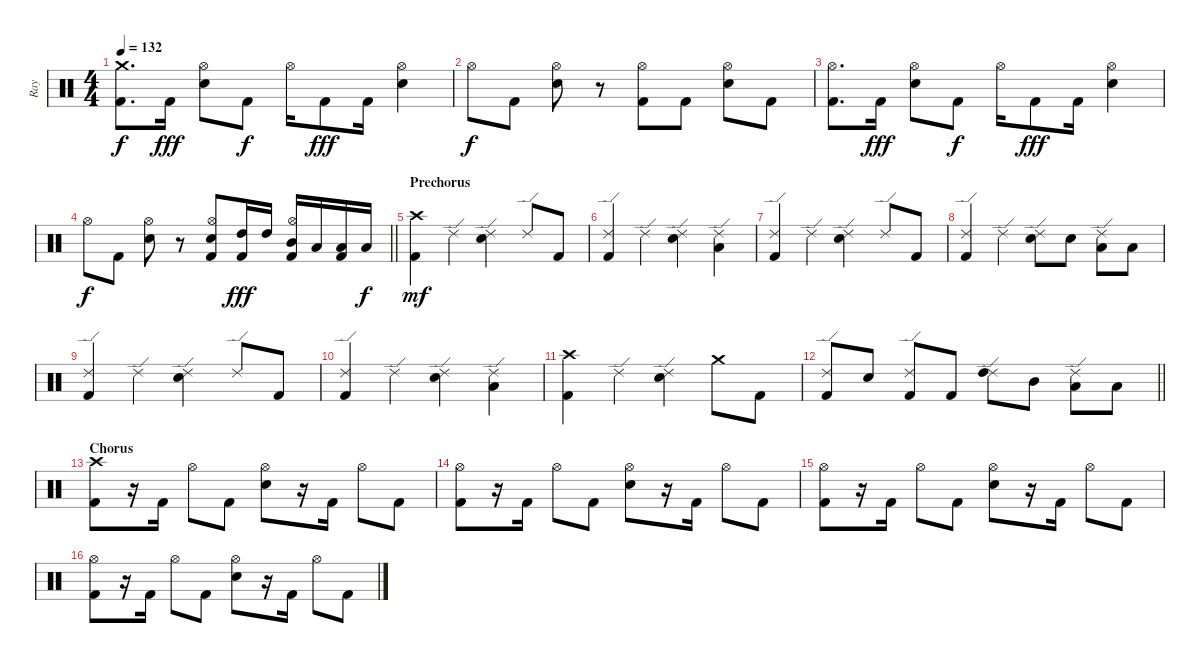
\track ("Ray" "Ray") {instrument percussion}
\staff {score}
\articulation defaults
\ts (4 4)
\tempo 132
\clef neutral
\ks c
("Crash medium (hit)" "Kick (hit) 2").8{d dy f} "Kick (hit) 2".16{dy fff} ("Hi-Hat (open)" "Snare (hit) 2").8 "Kick (hit) 2".8{dy f} "Hi-Hat (open)".16 "Kick (hit) 2".8{dy fff} "Kick (hit) 2".16 ("Hi-Hat (open)" "Snare (hit) 2").4 |
"Hi-Hat (open)".8{dy f} "Kick (hit) 2".8 ("Hi-Hat (open)" "Snare (hit) 2").8 r.8 ("Hi-Hat (open)" "Kick (hit) 2").8 "Kick (hit) 2".8 ("Hi-Hat (open)" "Snare (hit) 2").8 "Kick (hit) 2".8 |
("Hi-Hat (open)" "Kick (hit) 2").8{d} "Kick (hit) 2".16{dy fff} ("Hi-Hat (open)" "Snare (hit) 2").8 "Kick (hit) 2".8{dy f} "Hi-Hat (open)".16 "Kick (hit) 2".8{dy fff} "Kick (hit) 2".16 ("Hi-Hat (open)" "Snare (hit) 2").4 |
\barLineRight lightlight "Hi-Hat (open)".8{dy f} "Kick (hit) 2".8
("Hi-Hat (open)" "Snare (hit) 2").8 r.8 ("Hi-Hat (open)" "Snare (hit) 2" "Kick (hit) 2").8 ("High Tom (hit)" "Kick (hit) 2").16{dy fff} "High Tom (hit)".16 ("Hi-Hat (open)" "Mid Tom (hit)" "Kick (hit) 2").16 "Low Tom (hit)".16 ("Low Floor Tom (hit)" "Kick (hit) 2").16 "Low Floor Tom (hit)".16{dy f} |
\section ("" "Prechorus")
("Crash high (hit)" "Kick (hit) 2").4{dy mf} "Ride (edge) 2".4 ("Ride (edge) 2" "Snare (hit) 2").4 "Ride (edge) 2".8 "Kick (hit) 2".8 |
("Ride (edge) 2" "Kick (hit) 2").4 "Ride (edge) 2".4 ("Ride (edge) 2" "Snare (hit) 2").4 ("Ride (edge) 2" "Low Tom (hit)").4 |
("Ride (edge) 2" "Kick (hit) 2").4 "Ride (edge) 2".4 ("Ride (edge) 2" "Snare (hit) 2").4 "Ride (edge) 2".8 "Kick (hit) 2".8 |
("Ride (edge) 2" "Kick (hit) 2").4 "Ride (edge) 2".4 ("Ride (edge) 2" "Snare (hit) 2").8 "Snare (hit) 2".8 ("Ride (edge) 2" "Low Tom (hit)").8 "Low Floor Tom (hit)".8 |
("Ride (edge) 2" "Kick (hit) 2").4 "Ride (edge) 2".4 ("Ride (edge) 2" "Snare (hit) 2").4 "Ride (edge) 2".8 "Kick (hit) 2".8 |
("Ride (edge) 2" "Kick (hit) 2").4 "Ride (edge) 2".4 ("Ride (edge) 2" "Snare (hit) 2").4 ("Ride (edge) 2" "Low Tom (hit)").4 |
("Crash high (hit)" "Kick (hit) 2").4 "Ride (edge) 2".4 ("Ride (edge) 2" "Snare (hit) 2").4 "Crash medium (hit)".8 "Kick (hit) 2".8 |
\barLineRight lightlight
("Ride (edge) 2" "Kick (hit) 2").8 "Snare (hit) 2".8 ("Ride (edge) 2" "Kick (hit) 2").8 "Kick (hit) 2".8 ("Ride (edge) 2" "High Tom (hit)").8 "Mid Tom (hit)".8 ("Ride (edge) 2" "Low Tom (hit)").8 "Low Floor Tom (hit)".8 |
\section ("" "Chorus")
("Crash high (hit)" "Kick (hit) 2").8 r.16 "Kick (hit) 2".16 "Hi-Hat (open)".8 "Kick (hit) 2".8 ("Hi-Hat (open)" "Snare (hit) 2").8 r.16 "Kick (hit) 2".16 "Hi-Hat (open)".8 "Kick (hit) 2".8 |
("Hi-Hat (open)" "Kick (hit) 2").8 r.16 "Kick (hit) 2".16 "Hi-Hat (open)".8 "Kick (hit) 2".8 ("Hi-Hat (open)" "Snare (hit) 2").8 r.16 "Kick (hit) 2".16 "Hi-Hat (open)".8 "Kick (hit) 2".8 |
("Hi-Hat (open)" "Kick (hit) 2").8 r.16 "Kick (hit) 2".16 "Hi-Hat (open)".8 "Kick (hit) 2".8 ("Hi-Hat (open)" "Snare (hit) 2").8 r.16 "Kick (hit) 2".16 "Hi-Hat (open)".8 "Kick (hit) 2".8 |
("Hi-Hat (open)" "Kick (hit) 2").8 r.16 "Kick (hit) 2".16 "Hi-Hat (open)".8 "Kick (hit) 2".8 ("Hi-Hat (open)" "Snare (hit) 2").8 r.16 "Kick (hit) 2".16 "Hi-Hat (open)".8 "Kick (hit) 2".8
